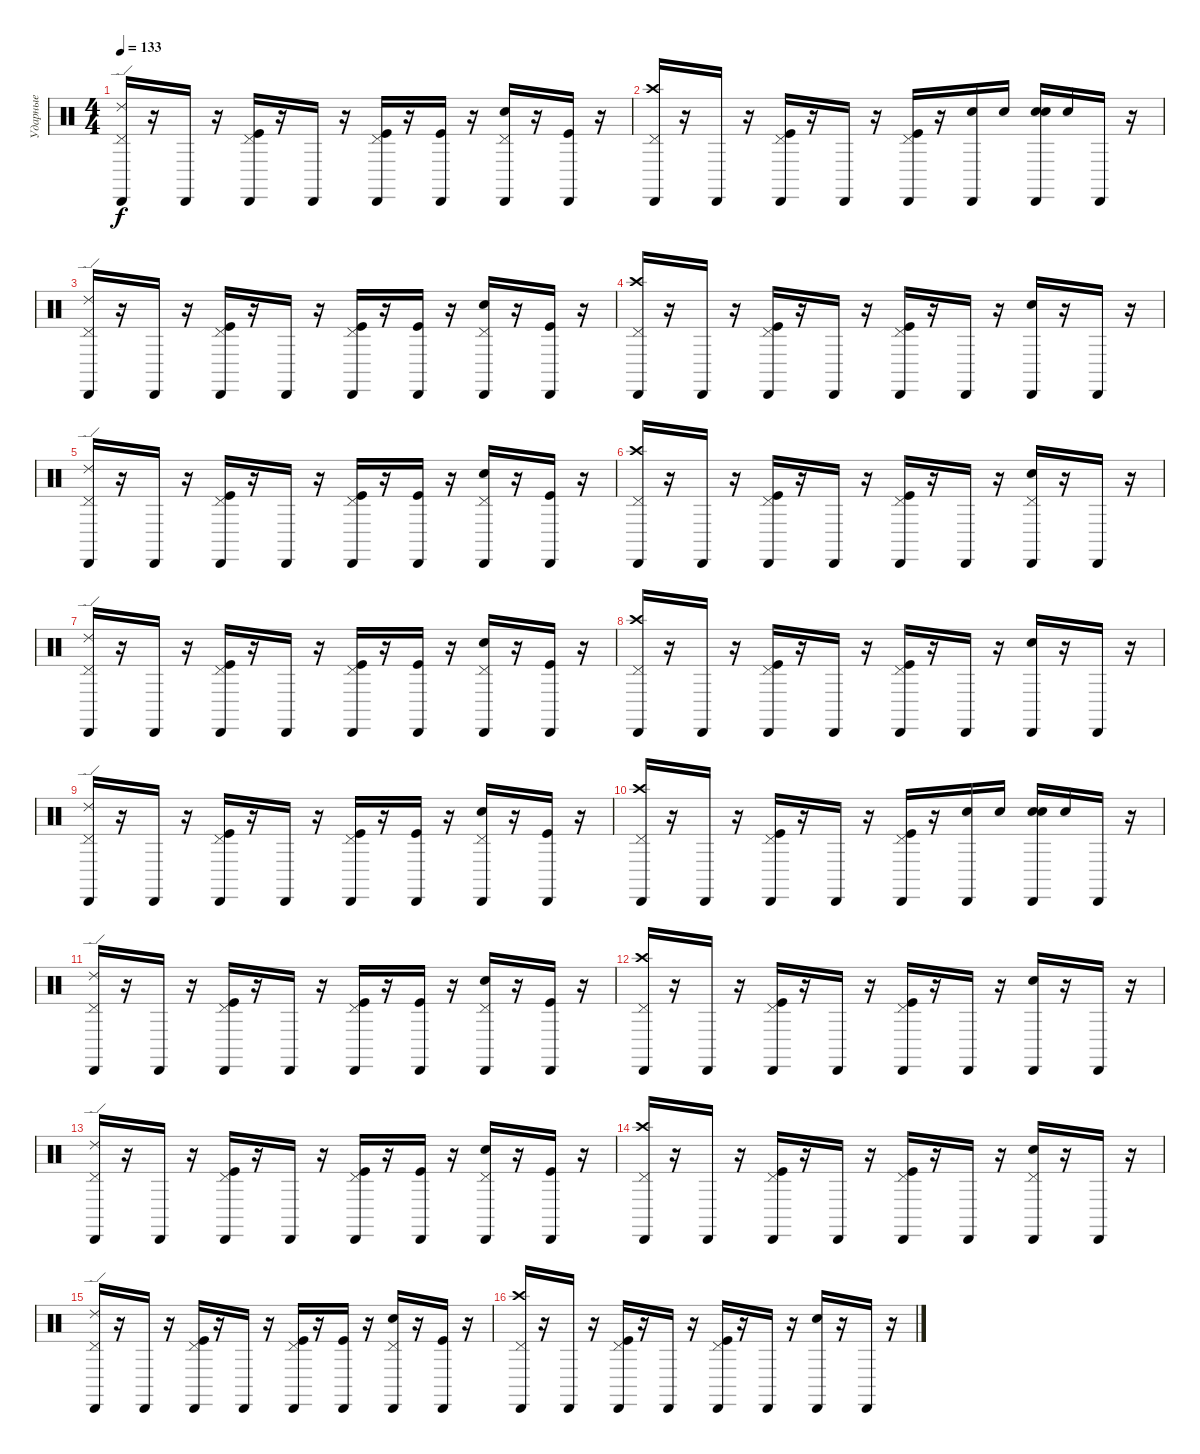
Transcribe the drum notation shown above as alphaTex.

\track ("Ударные" "Ударные") {instrument percussion}
\staff {score}
\articulation defaults
\ts (4 4)
\tempo 133
\clef neutral
\ks c
("Cabasa (hit)" "Pedal Hi-Hat (hit)" "Ride (edge) 2").16{dy f} r.16 "Cabasa (hit)".16 r.16 ("Cabasa (hit)" "Pedal Hi-Hat (hit)" "Kick (hit)").16 r.16 "Cabasa (hit)".16 r.16 ("Cabasa (hit)" "Pedal Hi-Hat (hit)" "Kick (hit)").16 r.16 ("Cabasa (hit)" "Kick (hit)").16 r.16 ("Cabasa (hit)" "Pedal Hi-Hat (hit)" "Snare (hit) 2").16 r.16 ("Cabasa (hit)" "Kick (hit)").16 r.16 |
("Cabasa (hit)" "Pedal Hi-Hat (hit)" "Crash high (hit)").16 r.16 "Cabasa (hit)".16 r.16 ("Cabasa (hit)" "Pedal Hi-Hat (hit)" "Kick (hit)").16 r.16 "Cabasa (hit)".16 r.16 ("Cabasa (hit)" "Pedal Hi-Hat (hit)" "Kick (hit)").16 r.16 ("Cabasa (hit)" "Snare (hit) 2").16 "Snare (hit) 2".16 ("Cabasa (hit)" "Snare (hit) 2" "Electric Snare (hit)").16 "Snare (hit) 2".16 "Cabasa (hit)".16 r.16 |
("Cabasa (hit)" "Pedal Hi-Hat (hit)" "Ride (edge) 2").16 r.16 "Cabasa (hit)".16 r.16 ("Cabasa (hit)" "Pedal Hi-Hat (hit)" "Kick (hit)").16 r.16 "Cabasa (hit)".16 r.16 ("Cabasa (hit)" "Pedal Hi-Hat (hit)" "Kick (hit)").16 r.16 ("Cabasa (hit)" "Kick (hit)").16 r.16 ("Cabasa (hit)" "Pedal Hi-Hat (hit)" "Snare (hit) 2").16 r.16 ("Cabasa (hit)" "Kick (hit)").16 r.16 |
("Cabasa (hit)" "Pedal Hi-Hat (hit)" "Crash high (hit)").16 r.16 "Cabasa (hit)".16 r.16 ("Cabasa (hit)" "Pedal Hi-Hat (hit)" "Kick (hit)").16 r.16 "Cabasa (hit)".16 r.16 ("Cabasa (hit)" "Pedal Hi-Hat (hit)" "Kick (hit)").16 r.16 "Cabasa (hit)".16 r.16 ("Cabasa (hit)" "Electric Snare (hit)").16 r.16 "Cabasa (hit)".16 r.16 |
("Cabasa (hit)" "Pedal Hi-Hat (hit)" "Ride (edge) 2").16 r.16 "Cabasa (hit)".16 r.16 ("Cabasa (hit)" "Pedal Hi-Hat (hit)" "Kick (hit)").16 r.16 "Cabasa (hit)".16 r.16 ("Cabasa (hit)" "Pedal Hi-Hat (hit)" "Kick (hit)").16 r.16 ("Cabasa (hit)" "Kick (hit)").16 r.16 ("Cabasa (hit)" "Pedal Hi-Hat (hit)" "Snare (hit) 2").16 r.16 ("Cabasa (hit)" "Kick (hit)").16 r.16 |
("Cabasa (hit)" "Pedal Hi-Hat (hit)" "Crash high (hit)").16 r.16 "Cabasa (hit)".16 r.16 ("Cabasa (hit)" "Pedal Hi-Hat (hit)" "Kick (hit)").16 r.16 "Cabasa (hit)".16 r.16 ("Cabasa (hit)" "Pedal Hi-Hat (hit)" "Kick (hit)").16 r.16 "Cabasa (hit)".16 r.16 ("Cabasa (hit)" "Pedal Hi-Hat (hit)" "Electric Snare (hit)").16 r.16 "Cabasa (hit)".16 r.16 |
("Cabasa (hit)" "Pedal Hi-Hat (hit)" "Ride (edge) 2").16 r.16 "Cabasa (hit)".16 r.16 ("Cabasa (hit)" "Pedal Hi-Hat (hit)" "Kick (hit)").16 r.16 "Cabasa (hit)".16 r.16 ("Cabasa (hit)" "Pedal Hi-Hat (hit)" "Kick (hit)").16 r.16 ("Cabasa (hit)" "Kick (hit)").16 r.16 ("Cabasa (hit)" "Pedal Hi-Hat (hit)" "Snare (hit) 2").16 r.16 ("Cabasa (hit)" "Kick (hit)").16 r.16 |
("Cabasa (hit)" "Pedal Hi-Hat (hit)" "Crash high (hit)").16 r.16 "Cabasa (hit)".16 r.16 ("Cabasa (hit)" "Pedal Hi-Hat (hit)" "Kick (hit)").16 r.16 "Cabasa (hit)".16 r.16 ("Cabasa (hit)" "Pedal Hi-Hat (hit)" "Kick (hit)").16 r.16 "Cabasa (hit)".16 r.16 ("Cabasa (hit)" "Electric Snare (hit)").16 r.16 "Cabasa (hit)".16 r.16 |
("Cabasa (hit)" "Pedal Hi-Hat (hit)" "Ride (edge) 2").16 r.16 "Cabasa (hit)".16 r.16 ("Cabasa (hit)" "Pedal Hi-Hat (hit)" "Kick (hit)").16 r.16 "Cabasa (hit)".16 r.16 ("Cabasa (hit)" "Pedal Hi-Hat (hit)" "Kick (hit)").16 r.16 ("Cabasa (hit)" "Kick (hit)").16 r.16 ("Cabasa (hit)" "Pedal Hi-Hat (hit)" "Snare (hit) 2").16 r.16 ("Cabasa (hit)" "Kick (hit)").16 r.16 |
("Cabasa (hit)" "Pedal Hi-Hat (hit)" "Crash high (hit)").16 r.16 "Cabasa (hit)".16 r.16 ("Cabasa (hit)" "Pedal Hi-Hat (hit)" "Kick (hit)").16 r.16 "Cabasa (hit)".16 r.16 ("Cabasa (hit)" "Pedal Hi-Hat (hit)" "Kick (hit)").16 r.16 ("Cabasa (hit)" "Snare (hit) 2").16 "Snare (hit) 2".16 ("Cabasa (hit)" "Snare (hit) 2" "Electric Snare (hit)").16 "Snare (hit) 2".16 "Cabasa (hit)".16 r.16 |
("Cabasa (hit)" "Pedal Hi-Hat (hit)" "Ride (edge) 2").16 r.16 "Cabasa (hit)".16 r.16 ("Cabasa (hit)" "Pedal Hi-Hat (hit)" "Kick (hit)").16 r.16 "Cabasa (hit)".16 r.16 ("Cabasa (hit)" "Pedal Hi-Hat (hit)" "Kick (hit)").16 r.16 ("Cabasa (hit)" "Kick (hit)").16 r.16 ("Cabasa (hit)" "Pedal Hi-Hat (hit)" "Snare (hit) 2").16 r.16 ("Cabasa (hit)" "Kick (hit)").16 r.16 |
("Cabasa (hit)" "Pedal Hi-Hat (hit)" "Crash high (hit)").16 r.16 "Cabasa (hit)".16 r.16 ("Cabasa (hit)" "Pedal Hi-Hat (hit)" "Kick (hit)").16 r.16 "Cabasa (hit)".16 r.16 ("Cabasa (hit)" "Pedal Hi-Hat (hit)" "Kick (hit)").16 r.16 "Cabasa (hit)".16 r.16 ("Cabasa (hit)" "Electric Snare (hit)").16 r.16 "Cabasa (hit)".16 r.16 |
("Cabasa (hit)" "Pedal Hi-Hat (hit)" "Ride (edge) 2").16 r.16 "Cabasa (hit)".16 r.16 ("Cabasa (hit)" "Pedal Hi-Hat (hit)" "Kick (hit)").16 r.16 "Cabasa (hit)".16 r.16 ("Cabasa (hit)" "Pedal Hi-Hat (hit)" "Kick (hit)").16 r.16 ("Cabasa (hit)" "Kick (hit)").16 r.16 ("Cabasa (hit)" "Pedal Hi-Hat (hit)" "Snare (hit) 2").16 r.16 ("Cabasa (hit)" "Kick (hit)").16 r.16 |
("Cabasa (hit)" "Pedal Hi-Hat (hit)" "Crash high (hit)").16 r.16 "Cabasa (hit)".16 r.16 ("Cabasa (hit)" "Pedal Hi-Hat (hit)" "Kick (hit)").16 r.16 "Cabasa (hit)".16 r.16 ("Cabasa (hit)" "Pedal Hi-Hat (hit)" "Kick (hit)").16 r.16 "Cabasa (hit)".16 r.16 ("Cabasa (hit)" "Pedal Hi-Hat (hit)" "Electric Snare (hit)").16 r.16 "Cabasa (hit)".16 r.16 |
("Cabasa (hit)" "Pedal Hi-Hat (hit)" "Ride (edge) 2").16 r.16 "Cabasa (hit)".16 r.16 ("Cabasa (hit)" "Pedal Hi-Hat (hit)" "Kick (hit)").16 r.16 "Cabasa (hit)".16 r.16 ("Cabasa (hit)" "Pedal Hi-Hat (hit)" "Kick (hit)").16 r.16 ("Cabasa (hit)" "Kick (hit)").16 r.16 ("Cabasa (hit)" "Pedal Hi-Hat (hit)" "Snare (hit) 2").16 r.16 ("Cabasa (hit)" "Kick (hit)").16 r.16 |
("Cabasa (hit)" "Pedal Hi-Hat (hit)" "Crash high (hit)").16 r.16 "Cabasa (hit)".16 r.16 ("Cabasa (hit)" "Pedal Hi-Hat (hit)" "Kick (hit)").16 r.16 "Cabasa (hit)".16 r.16 ("Cabasa (hit)" "Pedal Hi-Hat (hit)" "Kick (hit)").16 r.16 "Cabasa (hit)".16 r.16 ("Cabasa (hit)" "Electric Snare (hit)").16 r.16 "Cabasa (hit)".16 r.16
